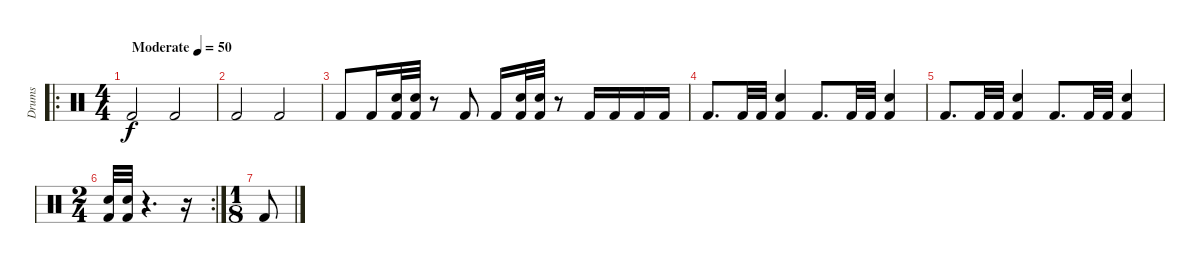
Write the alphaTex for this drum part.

\track ("Drums" "Drums") {instrument percussion}
\staff
\articulation defaults
\ro
\ts (4 4)
\tempo (50 "Moderate")
\clef neutral
\ks c "Kick (hit) 2".2{dy f} "Kick (hit) 2".2
|
"Kick (hit) 2".2 "Kick (hit) 2".2 |
"Kick (hit) 2".8 "Kick (hit) 2".16 ("Kick (hit) 2" "Snare (hit) 2").32 ("Kick (hit) 2" "Snare (hit) 2").32 r.8 "Kick (hit) 2".8 "Kick (hit) 2".16 ("Kick (hit) 2" "Snare (hit) 2").32 ("Kick (hit) 2" "Snare (hit) 2").32 r.8 "Kick (hit) 2".16 "Kick (hit) 2".16 "Kick (hit) 2".16 "Kick (hit) 2".16 |
"Kick (hit) 2".8{d} "Kick (hit) 2".32 "Kick (hit) 2".32 ("Kick (hit) 2" "Snare (hit) 2").4 "Kick (hit) 2".8{d} "Kick (hit) 2".32 "Kick (hit) 2".32 ("Kick (hit) 2" "Snare (hit) 2").4 |
"Kick (hit) 2".8{d} "Kick (hit) 2".32 "Kick (hit) 2".32 ("Kick (hit) 2" "Snare (hit) 2").4 "Kick (hit) 2".8{d} "Kick (hit) 2".32 "Kick (hit) 2".32 ("Kick (hit) 2" "Snare (hit) 2").4 |
\rc 2
\ts (2 4)
("Kick (hit) 2" "Snare (hit) 2").32 ("Kick (hit) 2" "Snare (hit) 2").32 r.4{d} r.16 |
\ts (1 8)
"Kick (hit) 2".8
